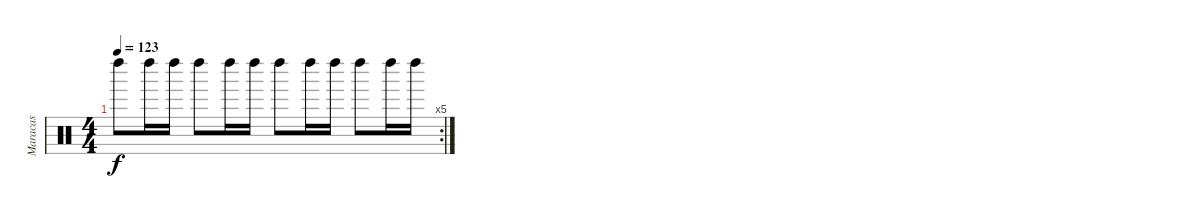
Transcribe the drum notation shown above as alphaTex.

\track ("Maracas" "Maracas") {instrument percussion}
\staff {score}
\articulation defaults
\rc 5
\ts (4 4)
\tempo 123
\clef neutral
\ks c "Left Maraca (hit)".8{dy f} "Left Maraca (hit)".16 "Left Maraca (hit)".16 "Left Maraca (hit)".8 "Left Maraca (hit)".16 "Left Maraca (hit)".16 "Left Maraca (hit)".8 "Left Maraca (hit)".16 "Left Maraca (hit)".16 "Left Maraca (hit)".8 "Left Maraca (hit)".16 "Left Maraca (hit)".16
